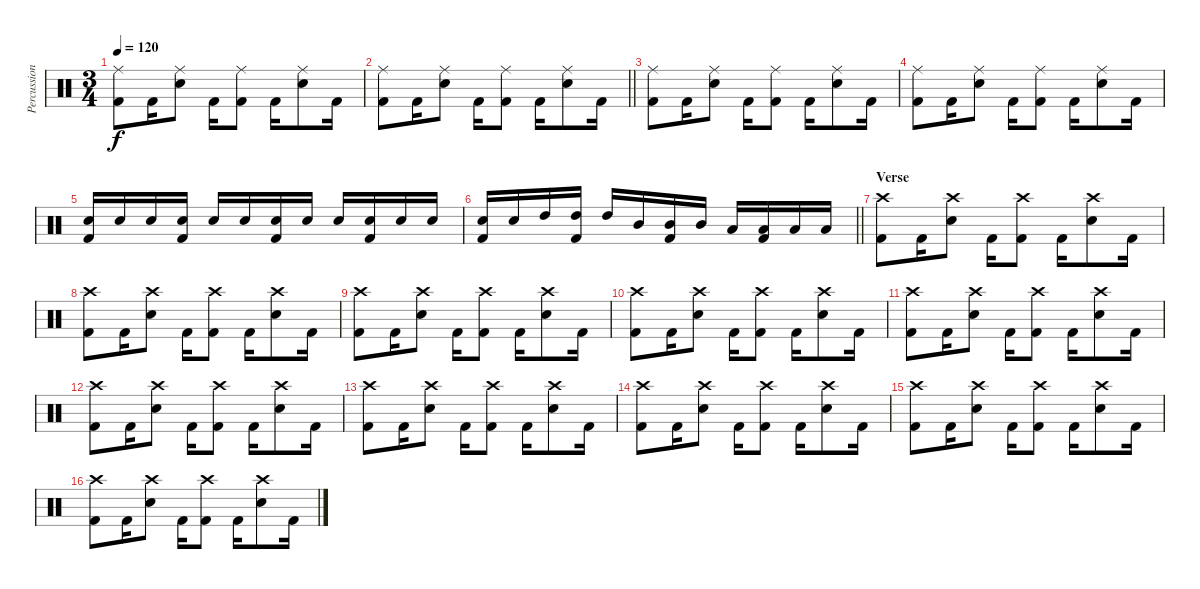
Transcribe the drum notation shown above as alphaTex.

\track ("Percussion" "Percussion") {instrument percussion}
\staff {score}
\articulation defaults
\ts (3 4)
\tempo 120
\clef neutral
\ks c
("Ride (middle)" "Kick (hit) 2").8{dy f} "Kick (hit) 2".16 ("Ride (middle)" "Snare (hit) 2").8 "Kick (hit) 2".16 ("Ride (middle)" "Kick (hit) 2").8 "Kick (hit) 2".16 ("Ride (middle)" "Snare (hit) 2").8 "Kick (hit) 2".16 |
\barLineRight lightlight
("Ride (middle)" "Kick (hit) 2").8 "Kick (hit) 2".16 ("Ride (middle)" "Snare (hit) 2").8 "Kick (hit) 2".16 ("Ride (middle)" "Kick (hit) 2").8 "Kick (hit) 2".16 ("Ride (middle)" "Snare (hit) 2").8 "Kick (hit) 2".16 |
("Ride (middle)" "Kick (hit) 2").8 "Kick (hit) 2".16 ("Ride (middle)" "Snare (hit) 2").8 "Kick (hit) 2".16 ("Ride (middle)" "Kick (hit) 2").8 "Kick (hit) 2".16 ("Ride (middle)" "Snare (hit) 2").8 "Kick (hit) 2".16 |
("Ride (middle)" "Kick (hit) 2").8 "Kick (hit) 2".16 ("Ride (middle)" "Snare (hit) 2").8 "Kick (hit) 2".16 ("Ride (middle)" "Kick (hit) 2").8 "Kick (hit) 2".16 ("Ride (middle)" "Snare (hit) 2").8 "Kick (hit) 2".16 |
("Snare (hit) 2" "Kick (hit) 2").16 "Snare (hit) 2".16 "Snare (hit) 2".16 ("Snare (hit) 2" "Kick (hit) 2").16 "Snare (hit) 2".16 "Snare (hit) 2".16 ("Snare (hit) 2" "Kick (hit) 2").16 "Snare (hit) 2".16 "Snare (hit) 2".16 ("Snare (hit) 2" "Kick (hit) 2").16 "Snare (hit) 2".16 "Snare (hit) 2".16 |
\barLineRight lightlight
("Snare (hit) 2" "Kick (hit) 2").16 "Snare (hit) 2".16 "High Tom (hit)".16 ("High Tom (hit)" "Kick (hit) 2").16 "High Tom (hit)".16 "Mid Tom (hit)".16 ("Mid Tom (hit)" "Kick (hit) 2").16 "Mid Tom (hit)".16 "Low Tom (hit)".16 ("Low Tom (hit)" "Kick (hit) 2").16 "Low Tom (hit)".16 "Low Tom (hit)".16 |
\section ("" "Verse")
("Crash high (hit)" "Kick (hit) 2").8 "Kick (hit) 2".16 ("Crash high (hit)" "Snare (hit) 2").8 "Kick (hit) 2".16 ("Crash high (hit)" "Kick (hit) 2").8 "Kick (hit) 2".16 ("Crash high (hit)" "Snare (hit) 2").8 "Kick (hit) 2".16 |
("Crash high (hit)" "Kick (hit) 2").8 "Kick (hit) 2".16 ("Crash high (hit)" "Snare (hit) 2").8 "Kick (hit) 2".16 ("Crash high (hit)" "Kick (hit) 2").8 "Kick (hit) 2".16 ("Crash high (hit)" "Snare (hit) 2").8 "Kick (hit) 2".16 |
("Crash high (hit)" "Kick (hit) 2").8 "Kick (hit) 2".16 ("Crash high (hit)" "Snare (hit) 2").8 "Kick (hit) 2".16 ("Crash high (hit)" "Kick (hit) 2").8 "Kick (hit) 2".16 ("Crash high (hit)" "Snare (hit) 2").8 "Kick (hit) 2".16 |
("Crash high (hit)" "Kick (hit) 2").8 "Kick (hit) 2".16 ("Crash high (hit)" "Snare (hit) 2").8 "Kick (hit) 2".16 ("Crash high (hit)" "Kick (hit) 2").8 "Kick (hit) 2".16 ("Crash high (hit)" "Snare (hit) 2").8 "Kick (hit) 2".16 |
("Crash high (hit)" "Kick (hit) 2").8 "Kick (hit) 2".16 ("Crash high (hit)" "Snare (hit) 2").8 "Kick (hit) 2".16 ("Crash high (hit)" "Kick (hit) 2").8 "Kick (hit) 2".16 ("Crash high (hit)" "Snare (hit) 2").8 "Kick (hit) 2".16 |
("Crash high (hit)" "Kick (hit) 2").8 "Kick (hit) 2".16 ("Crash high (hit)" "Snare (hit) 2").8 "Kick (hit) 2".16 ("Crash high (hit)" "Kick (hit) 2").8 "Kick (hit) 2".16 ("Crash high (hit)" "Snare (hit) 2").8 "Kick (hit) 2".16 |
("Crash high (hit)" "Kick (hit) 2").8 "Kick (hit) 2".16 ("Crash high (hit)" "Snare (hit) 2").8 "Kick (hit) 2".16 ("Crash high (hit)" "Kick (hit) 2").8 "Kick (hit) 2".16 ("Crash high (hit)" "Snare (hit) 2").8 "Kick (hit) 2".16 |
("Crash high (hit)" "Kick (hit) 2").8 "Kick (hit) 2".16 ("Crash high (hit)" "Snare (hit) 2").8 "Kick (hit) 2".16 ("Crash high (hit)" "Kick (hit) 2").8 "Kick (hit) 2".16 ("Crash high (hit)" "Snare (hit) 2").8 "Kick (hit) 2".16 |
("Crash high (hit)" "Kick (hit) 2").8 "Kick (hit) 2".16 ("Crash high (hit)" "Snare (hit) 2").8 "Kick (hit) 2".16 ("Crash high (hit)" "Kick (hit) 2").8 "Kick (hit) 2".16 ("Crash high (hit)" "Snare (hit) 2").8 "Kick (hit) 2".16 |
("Crash high (hit)" "Kick (hit) 2").8 "Kick (hit) 2".16 ("Crash high (hit)" "Snare (hit) 2").8 "Kick (hit) 2".16 ("Crash high (hit)" "Kick (hit) 2").8 "Kick (hit) 2".16 ("Crash high (hit)" "Snare (hit) 2").8 "Kick (hit) 2".16
